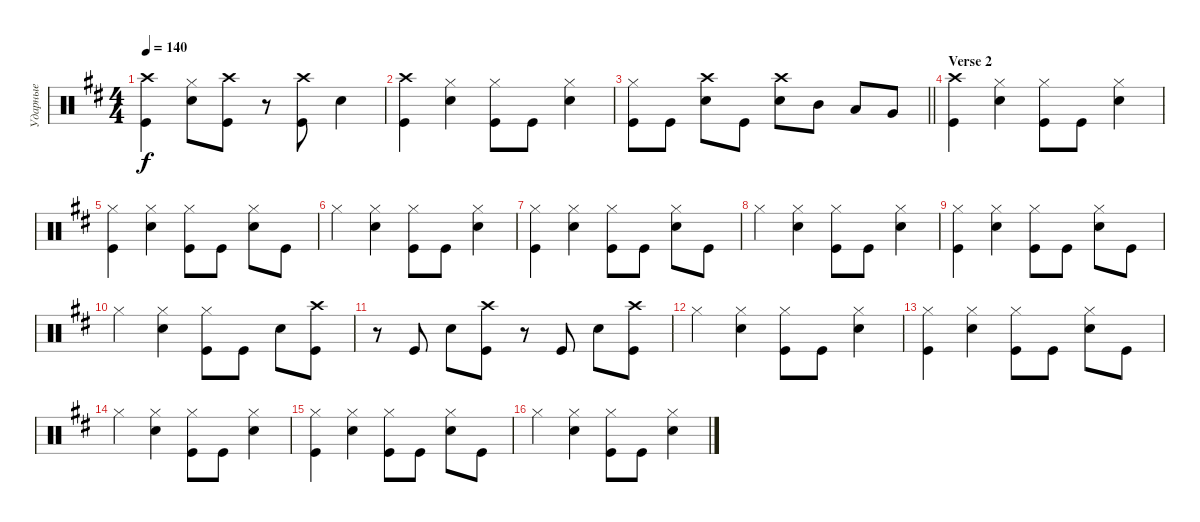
\track ("Ударные" "Ударные") {instrument percussion}
\staff {score}
\articulation defaults
\ts (4 4)
\tempo 140
\clef neutral
\ks bminor
("Kick (hit)" "Crash high (hit)").4{dy f} ("Snare (hit) 2" "Hi-Hat (closed)").8 ("Kick (hit)" "Crash high (hit)").8 r.8 ("Kick (hit)" "Crash high (hit)").8 "Snare (hit) 2".4 |
("Kick (hit)" "Crash high (hit)").4 ("Snare (hit) 2" "Hi-Hat (closed)").4 ("Kick (hit)" "Hi-Hat (closed)").8 "Kick (hit)".8 ("Snare (hit) 2" "Hi-Hat (closed)").4 |
\barLineRight lightlight
("Kick (hit)" "Hi-Hat (closed)").8 "Kick (hit)".8 ("Snare (hit) 2" "Crash high (hit)").8 "Kick (hit)".8 ("Snare (hit) 2" "Crash high (hit)").8 "Mid Tom (hit)".8 "Low Tom (hit)".8 "Very Low Tom (hit)".8 |
\section ("" "Verse 2")
("Kick (hit)" "Crash high (hit)").4 ("Snare (hit) 2" "Hi-Hat (closed)").4 ("Kick (hit)" "Hi-Hat (closed)").8 "Kick (hit)".8 ("Snare (hit) 2" "Hi-Hat (closed)").4 |
("Kick (hit)" "Hi-Hat (closed)").4 ("Snare (hit) 2" "Hi-Hat (closed)").4 ("Kick (hit)" "Hi-Hat (closed)").8 "Kick (hit)".8 ("Snare (hit) 2" "Hi-Hat (closed)").8 "Kick (hit)".8 |
"Hi-Hat (closed)".4 ("Snare (hit) 2" "Hi-Hat (closed)").4 ("Kick (hit)" "Hi-Hat (closed)").8 "Kick (hit)".8 ("Snare (hit) 2" "Hi-Hat (closed)").4 |
("Kick (hit)" "Hi-Hat (closed)").4 ("Snare (hit) 2" "Hi-Hat (closed)").4 ("Kick (hit)" "Hi-Hat (closed)").8 "Kick (hit)".8 ("Snare (hit) 2" "Hi-Hat (closed)").8 "Kick (hit)".8 |
"Hi-Hat (closed)".4 ("Snare (hit) 2" "Hi-Hat (closed)").4 ("Kick (hit)" "Hi-Hat (closed)").8 "Kick (hit)".8 ("Snare (hit) 2" "Hi-Hat (closed)").4 |
("Kick (hit)" "Hi-Hat (closed)").4 ("Snare (hit) 2" "Hi-Hat (closed)").4 ("Kick (hit)" "Hi-Hat (closed)").8 "Kick (hit)".8 ("Snare (hit) 2" "Hi-Hat (closed)").8 "Kick (hit)".8 |
"Hi-Hat (closed)".4 ("Snare (hit) 2" "Hi-Hat (closed)").4 ("Kick (hit)" "Hi-Hat (closed)").8 "Kick (hit)".8 "Snare (hit) 2".8 ("Kick (hit)" "Crash high (hit)").8 |
r.8 "Kick (hit)".8 "Snare (hit) 2".8 ("Kick (hit)" "Crash high (hit)").8 r.8 "Kick (hit)".8 "Snare (hit) 2".8 ("Kick (hit)" "Crash high (hit)").8 |
"Hi-Hat (closed)".4 ("Snare (hit) 2" "Hi-Hat (closed)").4 ("Kick (hit)" "Hi-Hat (closed)").8 "Kick (hit)".8 ("Snare (hit) 2" "Hi-Hat (closed)").4 |
("Kick (hit)" "Hi-Hat (closed)").4 ("Snare (hit) 2" "Hi-Hat (closed)").4 ("Kick (hit)" "Hi-Hat (closed)").8 "Kick (hit)".8 ("Snare (hit) 2" "Hi-Hat (closed)").8 "Kick (hit)".8 |
"Hi-Hat (closed)".4 ("Snare (hit) 2" "Hi-Hat (closed)").4 ("Kick (hit)" "Hi-Hat (closed)").8 "Kick (hit)".8 ("Snare (hit) 2" "Hi-Hat (closed)").4 |
("Kick (hit)" "Hi-Hat (closed)").4 ("Snare (hit) 2" "Hi-Hat (closed)").4 ("Kick (hit)" "Hi-Hat (closed)").8 "Kick (hit)".8 ("Snare (hit) 2" "Hi-Hat (closed)").8 "Kick (hit)".8 |
"Hi-Hat (closed)".4 ("Snare (hit) 2" "Hi-Hat (closed)").4 ("Kick (hit)" "Hi-Hat (closed)").8 "Kick (hit)".8 ("Snare (hit) 2" "Hi-Hat (closed)").4
